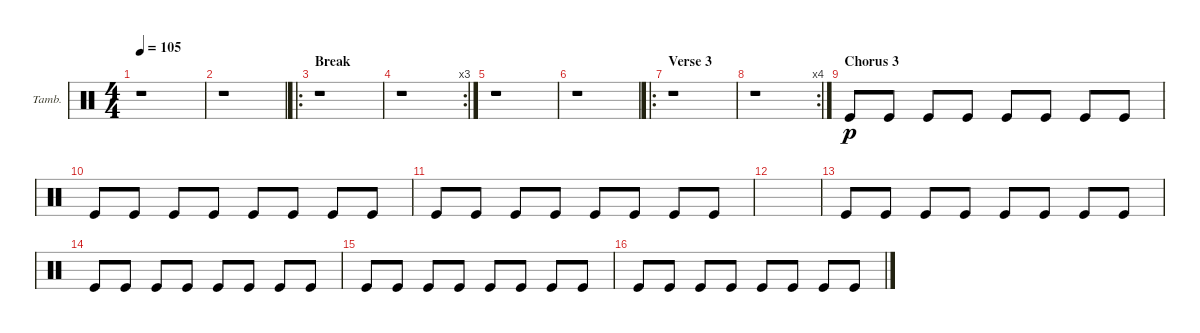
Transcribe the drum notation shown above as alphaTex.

\defaultSystemsLayout 4
\bracketExtendMode groupsimilarinstruments
\firstSystemTrackNameOrientation horizontal
\otherSystemsTrackNameOrientation horizontal
\chordDiagramsInScore
\track ("Tambourine" "Tamb.") {instrument percussion}
\staff {score}
\articulation defaults
\ts (4 4)
\tempo 105
\clef neutral
\scale
0.333333
\ks c
r.1{dy p} |
\scale
0.333333 r.1 |
\ro
\section ("" "Break")
\scale
0.365591 r.1 |
\rc 3
\scale
0.333333 r.1 |
\scale
0.301075 r.1 |
\scale
0.301075 r.1 |
\ro
\section ("" "Verse 3")
\scale
0.365591 r.1 |
\rc 4
\scale
0.333333 r.1 |
\section ("" "Chorus 3")
\scale
0.333333 "Kick (hit)".8 "Kick (hit)".8 "Kick (hit)".8 "Kick (hit)".8 "Kick (hit)".8 "Kick (hit)".8 "Kick (hit)".8 "Kick (hit)".8 |
\scale
0.333333 "Kick (hit)".8 "Kick (hit)".8 "Kick (hit)".8 "Kick (hit)".8 "Kick (hit)".8 "Kick (hit)".8 "Kick (hit)".8 "Kick (hit)".8 |
\scale
0.333333 "Kick (hit)".8 "Kick (hit)".8 "Kick (hit)".8 "Kick (hit)".8 "Kick (hit)".8 "Kick (hit)".8 "Kick (hit)".8 "Kick (hit)".8 |
|
\scale
0.333333 "Kick (hit)".8 "Kick (hit)".8 "Kick (hit)".8 "Kick (hit)".8 "Kick (hit)".8 "Kick (hit)".8 "Kick (hit)".8 "Kick (hit)".8 |
\scale
0.333333 "Kick (hit)".8 "Kick (hit)".8 "Kick (hit)".8 "Kick (hit)".8 "Kick (hit)".8 "Kick (hit)".8 "Kick (hit)".8 "Kick (hit)".8 |
\scale
0.333333 "Kick (hit)".8 "Kick (hit)".8 "Kick (hit)".8 "Kick (hit)".8 "Kick (hit)".8 "Kick (hit)".8 "Kick (hit)".8 "Kick (hit)".8 |
\scale
0.333333 "Kick (hit)".8 "Kick (hit)".8 "Kick (hit)".8 "Kick (hit)".8 "Kick (hit)".8 "Kick (hit)".8 "Kick (hit)".8 "Kick (hit)".8
